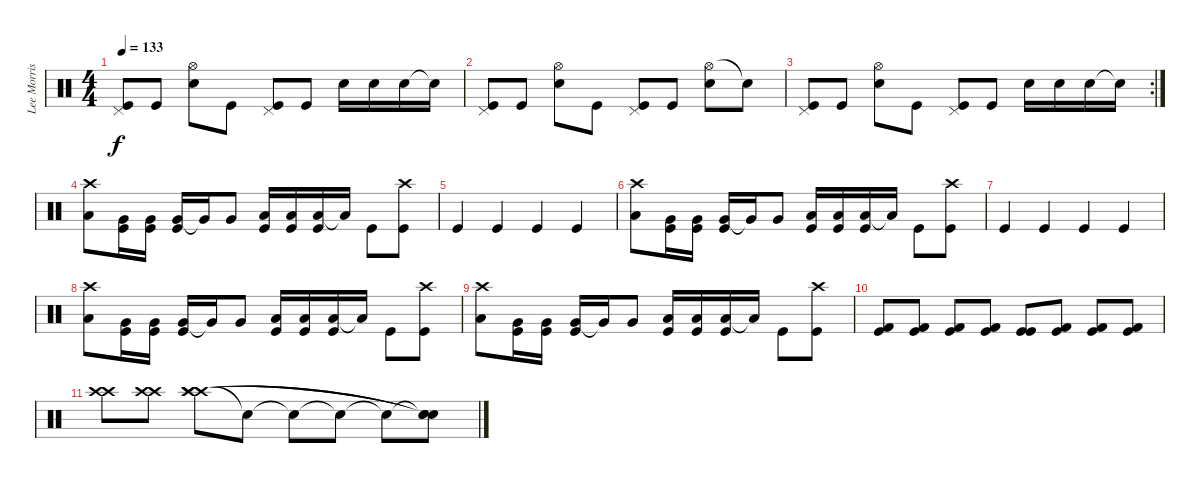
\track ("Lee Morris" "Lee Morris") {instrument percussion}
\staff {score}
\articulation defaults
\ts (4 4)
\tempo 133
\clef neutral
\ks c
("Pedal Hi-Hat (hit)" "Kick (hit)").8{dy f} "Kick (hit)".8 ("Hi-Hat (open)" "Electric Snare (hit)").8 "Kick (hit)".8 ("Pedal Hi-Hat (hit)" "Kick (hit)").8 "Kick (hit)".8 "Electric Snare (hit)".16 "Electric Snare (hit)".16 "Electric Snare (hit)".16 "Snare (hit)"{t}.16 |
("Pedal Hi-Hat (hit)" "Kick (hit)").8 "Kick (hit)".8 ("Hi-Hat (open)" "Electric Snare (hit)").8 "Kick (hit)".8 ("Pedal Hi-Hat (hit)" "Kick (hit)").8 "Kick (hit)".8 ("Hi-Hat (open)" "Electric Snare (hit)").8 "Snare (hit)"{t}.8 |
\rc 2
("Pedal Hi-Hat (hit)" "Kick (hit)").8 "Kick (hit)".8 ("Hi-Hat (open)" "Electric Snare (hit)").8 "Kick (hit)".8 ("Pedal Hi-Hat (hit)" "Kick (hit)").8 "Kick (hit)".8 "Electric Snare (hit)".16 "Electric Snare (hit)".16 "Electric Snare (hit)".16 "Snare (hit)"{t}.16 |
("Crash high (hit)" "Low Tom (hit)").8 ("Very Low Tom (hit)" "Kick (hit)").16 ("Very Low Tom (hit)" "Kick (hit)").16 ("Very Low Tom (hit)" "Kick (hit)").16 "Very Low Tom (hit)"{t}.16 "Very Low Tom (hit)".8 ("Low Floor Tom (hit)" "Kick (hit)").16 ("Low Floor Tom (hit)" "Kick (hit)").16 ("Low Floor Tom (hit)" "Kick (hit)").16 "Low Floor Tom (hit)"{t}.16 "Kick (hit)".8 ("Crash high (hit)" "Kick (hit)").8 |
"Kick (hit)".4 "Kick (hit)".4 "Kick (hit)".4 "Kick (hit)".4 |
("Crash high (hit)" "Low Tom (hit)").8 ("Very Low Tom (hit)" "Kick (hit)").16 ("Very Low Tom (hit)" "Kick (hit)").16 ("Very Low Tom (hit)" "Kick (hit)").16 "Very Low Tom (hit)"{t}.16 "Very Low Tom (hit)".8 ("Low Floor Tom (hit)" "Kick (hit)").16 ("Low Floor Tom (hit)" "Kick (hit)").16 ("Low Floor Tom (hit)" "Kick (hit)").16 "Low Floor Tom (hit)"{t}.16 "Kick (hit)".8 ("Crash high (hit)" "Kick (hit)").8 |
"Kick (hit)".4 "Kick (hit)".4 "Kick (hit)".4 "Kick (hit)".4 |
("Crash high (hit)" "Low Tom (hit)").8 ("Very Low Tom (hit)" "Kick (hit)").16 ("Very Low Tom (hit)" "Kick (hit)").16 ("Very Low Tom (hit)" "Kick (hit)").16 "Very Low Tom (hit)"{t}.16 "Very Low Tom (hit)".8 ("Low Floor Tom (hit)" "Kick (hit)").16 ("Low Floor Tom (hit)" "Kick (hit)").16 ("Low Floor Tom (hit)" "Kick (hit)").16 "Low Floor Tom (hit)"{t}.16 "Kick (hit)".8 ("Crash high (hit)" "Kick (hit)").8 |
("Crash high (hit)" "Low Tom (hit)").8 ("Very Low Tom (hit)" "Kick (hit)").16 ("Very Low Tom (hit)" "Kick (hit)").16 ("Very Low Tom (hit)" "Kick (hit)").16 "Very Low Tom (hit)"{t}.16 "Very Low Tom (hit)".8 ("Low Floor Tom (hit)" "Kick (hit)").16 ("Low Floor Tom (hit)" "Kick (hit)").16 ("Low Floor Tom (hit)" "Kick (hit)").16 "Low Floor Tom (hit)"{t}.16 "Kick (hit)".8 ("Crash high (hit)" "Kick (hit)").8 |
("Kick (hit) 2" "Kick (hit)").8{volume 16} ("Kick (hit) 2" "Kick (hit)").8 ("Kick (hit) 2" "Kick (hit)").8 ("Kick (hit) 2" "Kick (hit)").8 ("Kick (hit)" "Kick (hit)").8 ("Kick (hit) 2" "Kick (hit)").8 ("Kick (hit) 2" "Kick (hit)").8 ("Kick (hit) 2" "Kick (hit)").8 |
("Crash high (hit)" "Crash high (hit)").8 ("Crash high (hit)" "Crash high (hit)").8 ("Crash high (hit)" "Crash high (hit)" "Crash high (hit)").8 "Snare (hit)"{t}.8 "Snare (hit)"{t}.8 "Snare (hit)"{t}.8 "Snare (hit)"{t}.8 ("Snare (hit)"{t} "Snare (hit)"{t} "Snare (hit)"{t}).8
